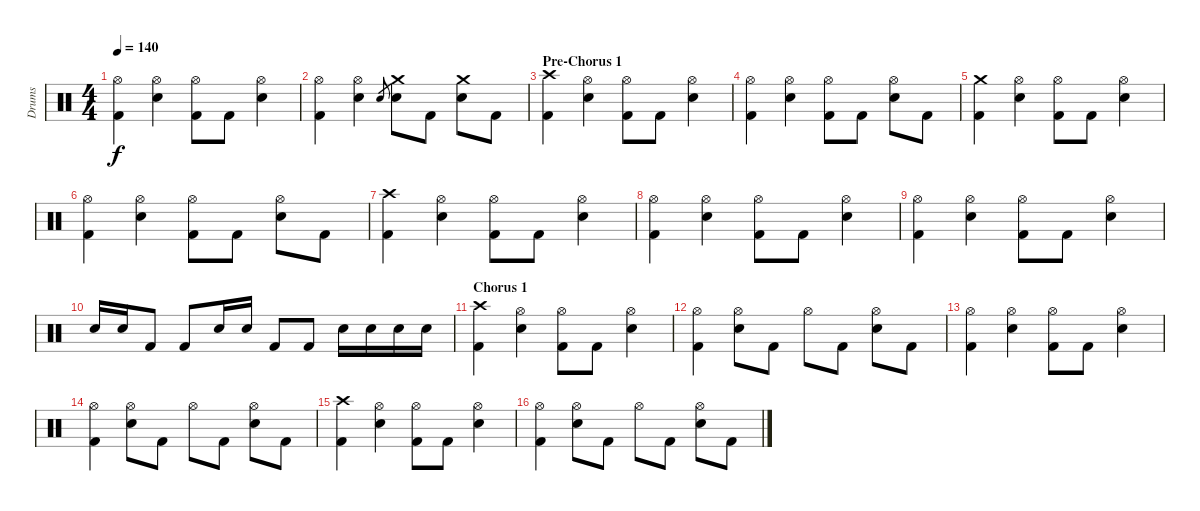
\track ("Drums" "Drums") {instrument percussion}
\staff {score}
\articulation defaults
\ts (4 4)
\tempo 140
\clef neutral
\ks c
("Hi-Hat (open)" "Kick (hit) 2").4{dy f} ("Hi-Hat (open)" "Electric Snare (hit)").4 ("Hi-Hat (open)" "Kick (hit) 2").8 "Kick (hit) 2".8 ("Hi-Hat (open)" "Electric Snare (hit)").4 |
("Hi-Hat (open)" "Kick (hit) 2").4 ("Hi-Hat (open)" "Electric Snare (hit)").4 "Electric Snare (hit)".8{gr} ("Crash medium (hit)" "Electric Snare (hit)").8 "Kick (hit) 2".8 ("Crash medium (hit)" "Electric Snare (hit)").8 "Kick (hit) 2".8 |
\section ("" "Pre-Chorus 1")
("Crash high (hit)" "Kick (hit) 2").4 ("Hi-Hat (open)" "Electric Snare (hit)").4 ("Hi-Hat (open)" "Kick (hit) 2").8 "Kick (hit) 2".8 ("Hi-Hat (open)" "Electric Snare (hit)").4 |
("Hi-Hat (open)" "Kick (hit) 2").4 ("Hi-Hat (open)" "Electric Snare (hit)").4 ("Hi-Hat (open)" "Kick (hit) 2").8 "Kick (hit) 2".8 ("Hi-Hat (open)" "Electric Snare (hit)").8 "Kick (hit) 2".8 |
("Crash medium (hit)" "Kick (hit) 2").4 ("Hi-Hat (open)" "Electric Snare (hit)").4 ("Hi-Hat (open)" "Kick (hit) 2").8 "Kick (hit) 2".8 ("Hi-Hat (open)" "Electric Snare (hit)").4 |
("Hi-Hat (open)" "Kick (hit) 2").4 ("Hi-Hat (open)" "Electric Snare (hit)").4 ("Hi-Hat (open)" "Kick (hit) 2").8 "Kick (hit) 2".8 ("Hi-Hat (open)" "Electric Snare (hit)").8 "Kick (hit) 2".8 |
("Crash high (hit)" "Kick (hit) 2").4 ("Hi-Hat (open)" "Electric Snare (hit)").4 ("Hi-Hat (open)" "Kick (hit) 2").8 "Kick (hit) 2".8 ("Hi-Hat (open)" "Electric Snare (hit)").4 |
("Hi-Hat (open)" "Kick (hit) 2").4 ("Hi-Hat (open)" "Electric Snare (hit)").4 ("Hi-Hat (open)" "Kick (hit) 2").8 "Kick (hit) 2".8 ("Hi-Hat (open)" "Electric Snare (hit)").4 |
("Hi-Hat (open)" "Kick (hit) 2").4 ("Hi-Hat (open)" "Electric Snare (hit)").4 ("Hi-Hat (open)" "Kick (hit) 2").8 "Kick (hit) 2".8 ("Hi-Hat (open)" "Electric Snare (hit)").4 |
"Electric Snare (hit)".16 "Electric Snare (hit)".16 "Kick (hit) 2".8 "Kick (hit) 2".8 "Electric Snare (hit)".16 "Electric Snare (hit)".16 "Kick (hit) 2".8 "Kick (hit) 2".8 "Electric Snare (hit)".16 "Electric Snare (hit)".16 "Electric Snare (hit)".16 "Electric Snare (hit)".16 |
\section ("" "Chorus 1")
("Crash high (hit)" "Kick (hit) 2").4 ("Hi-Hat (open)" "Electric Snare (hit)").4 ("Hi-Hat (open)" "Kick (hit) 2").8 "Kick (hit) 2".8 ("Hi-Hat (open)" "Electric Snare (hit)").4 |
("Hi-Hat (open)" "Kick (hit) 2").4 ("Hi-Hat (open)" "Electric Snare (hit)").8 "Kick (hit) 2".8 "Hi-Hat (open)".8 "Kick (hit) 2".8 ("Hi-Hat (open)" "Electric Snare (hit)").8 "Kick (hit) 2".8 |
("Hi-Hat (open)" "Kick (hit) 2").4 ("Hi-Hat (open)" "Electric Snare (hit)").4 ("Hi-Hat (open)" "Kick (hit) 2").8 "Kick (hit) 2".8 ("Hi-Hat (open)" "Electric Snare (hit)").4 |
("Hi-Hat (open)" "Kick (hit) 2").4 ("Hi-Hat (open)" "Electric Snare (hit)").8 "Kick (hit) 2".8 "Hi-Hat (open)".8 "Kick (hit) 2".8 ("Hi-Hat (open)" "Electric Snare (hit)").8 "Kick (hit) 2".8 |
("Crash high (hit)" "Kick (hit) 2").4 ("Hi-Hat (open)" "Electric Snare (hit)").4 ("Hi-Hat (open)" "Kick (hit) 2").8 "Kick (hit) 2".8 ("Hi-Hat (open)" "Electric Snare (hit)").4 |
("Hi-Hat (open)" "Kick (hit) 2").4 ("Hi-Hat (open)" "Electric Snare (hit)").8 "Kick (hit) 2".8 "Hi-Hat (open)".8 "Kick (hit) 2".8 ("Hi-Hat (open)" "Electric Snare (hit)").8 "Kick (hit) 2".8
